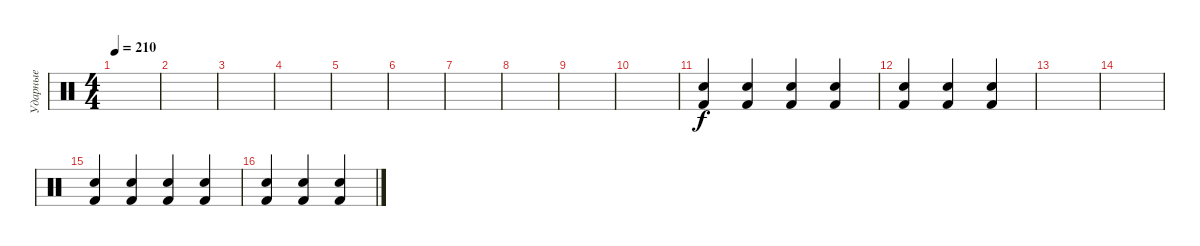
\track ("Ударные" "Ударные") {instrument percussion}
\staff {score}
\articulation defaults
\ts (4 4)
\tempo 210
\clef neutral
\ks c
|
|
|
|
|
|
|
|
|
|
("Kick (hit) 2" "Electric Snare (hit)").4 ("Electric Snare (hit)" "Kick (hit) 2").4 ("Kick (hit) 2" "Electric Snare (hit)").4 ("Electric Snare (hit)" "Kick (hit) 2").4 |
("Kick (hit) 2" "Electric Snare (hit)").4 ("Electric Snare (hit)" "Kick (hit) 2").4 ("Electric Snare (hit)" "Kick (hit) 2").4 |
|
|
("Kick (hit) 2" "Electric Snare (hit)").4 ("Electric Snare (hit)" "Kick (hit) 2").4 ("Kick (hit) 2" "Electric Snare (hit)").4 ("Electric Snare (hit)" "Kick (hit) 2").4 |
("Kick (hit) 2" "Electric Snare (hit)").4 ("Electric Snare (hit)" "Kick (hit) 2").4 ("Electric Snare (hit)" "Kick (hit) 2").4
